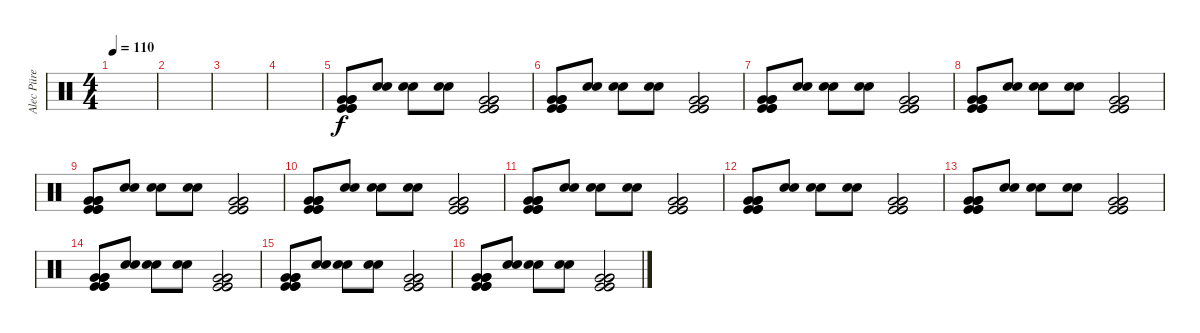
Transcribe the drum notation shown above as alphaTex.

\track ("Alec Püre" "Alec Püre") {instrument percussion}
\staff {score}
\articulation defaults
\ts (4 4)
\tempo 110
\clef neutral
\ks c
|
|
|
|
("Very Low Tom (hit)" "Very Low Tom (hit)" "Very Low Tom (hit)" "Kick (hit)" "Kick (hit)" "Kick (hit)").8 ("Electric Snare (hit)" "Electric Snare (hit)").8 ("Electric Snare (hit)" "Electric Snare (hit)").8 ("Electric Snare (hit)" "Electric Snare (hit)").8 ("Very Low Tom (hit)" "Very Low Tom (hit)" "Very Low Tom (hit)" "Kick (hit)" "Kick (hit)" "Kick (hit)").2 |
("Very Low Tom (hit)" "Very Low Tom (hit)" "Very Low Tom (hit)" "Kick (hit)" "Kick (hit)" "Kick (hit)").8 ("Electric Snare (hit)" "Electric Snare (hit)").8 ("Electric Snare (hit)" "Electric Snare (hit)").8 ("Electric Snare (hit)" "Electric Snare (hit)").8 ("Very Low Tom (hit)" "Very Low Tom (hit)" "Very Low Tom (hit)" "Kick (hit)" "Kick (hit)" "Kick (hit)").2 |
("Very Low Tom (hit)" "Very Low Tom (hit)" "Very Low Tom (hit)" "Kick (hit)" "Kick (hit)" "Kick (hit)").8 ("Electric Snare (hit)" "Electric Snare (hit)").8 ("Electric Snare (hit)" "Electric Snare (hit)").8 ("Electric Snare (hit)" "Electric Snare (hit)").8 ("Very Low Tom (hit)" "Very Low Tom (hit)" "Very Low Tom (hit)" "Kick (hit)" "Kick (hit)" "Kick (hit)").2 |
("Very Low Tom (hit)" "Very Low Tom (hit)" "Very Low Tom (hit)" "Kick (hit)" "Kick (hit)" "Kick (hit)").8 ("Electric Snare (hit)" "Electric Snare (hit)").8 ("Electric Snare (hit)" "Electric Snare (hit)").8 ("Electric Snare (hit)" "Electric Snare (hit)").8 ("Very Low Tom (hit)" "Very Low Tom (hit)" "Very Low Tom (hit)" "Kick (hit)" "Kick (hit)" "Kick (hit)").2 |
("Very Low Tom (hit)" "Very Low Tom (hit)" "Very Low Tom (hit)" "Kick (hit)" "Kick (hit)" "Kick (hit)").8 ("Electric Snare (hit)" "Electric Snare (hit)").8 ("Electric Snare (hit)" "Electric Snare (hit)").8 ("Electric Snare (hit)" "Electric Snare (hit)").8 ("Very Low Tom (hit)" "Very Low Tom (hit)" "Very Low Tom (hit)" "Kick (hit)" "Kick (hit)" "Kick (hit)").2 |
("Very Low Tom (hit)" "Very Low Tom (hit)" "Very Low Tom (hit)" "Kick (hit)" "Kick (hit)" "Kick (hit)").8 ("Electric Snare (hit)" "Electric Snare (hit)").8 ("Electric Snare (hit)" "Electric Snare (hit)").8 ("Electric Snare (hit)" "Electric Snare (hit)").8 ("Very Low Tom (hit)" "Very Low Tom (hit)" "Very Low Tom (hit)" "Kick (hit)" "Kick (hit)" "Kick (hit)").2 |
("Very Low Tom (hit)" "Very Low Tom (hit)" "Very Low Tom (hit)" "Kick (hit)" "Kick (hit)" "Kick (hit)").8 ("Electric Snare (hit)" "Electric Snare (hit)").8 ("Electric Snare (hit)" "Electric Snare (hit)").8 ("Electric Snare (hit)" "Electric Snare (hit)").8 ("Very Low Tom (hit)" "Very Low Tom (hit)" "Very Low Tom (hit)" "Kick (hit)" "Kick (hit)" "Kick (hit)").2 |
("Very Low Tom (hit)" "Very Low Tom (hit)" "Very Low Tom (hit)" "Kick (hit)" "Kick (hit)" "Kick (hit)").8 ("Electric Snare (hit)" "Electric Snare (hit)").8 ("Electric Snare (hit)" "Electric Snare (hit)").8 ("Electric Snare (hit)" "Electric Snare (hit)").8 ("Very Low Tom (hit)" "Very Low Tom (hit)" "Very Low Tom (hit)" "Kick (hit)" "Kick (hit)" "Kick (hit)").2 |
("Very Low Tom (hit)" "Very Low Tom (hit)" "Very Low Tom (hit)" "Kick (hit)" "Kick (hit)" "Kick (hit)").8 ("Electric Snare (hit)" "Electric Snare (hit)").8 ("Electric Snare (hit)" "Electric Snare (hit)").8 ("Electric Snare (hit)" "Electric Snare (hit)").8 ("Very Low Tom (hit)" "Very Low Tom (hit)" "Very Low Tom (hit)" "Kick (hit)" "Kick (hit)" "Kick (hit)").2 |
("Very Low Tom (hit)" "Very Low Tom (hit)" "Very Low Tom (hit)" "Kick (hit)" "Kick (hit)" "Kick (hit)").8 ("Electric Snare (hit)" "Electric Snare (hit)").8 ("Electric Snare (hit)" "Electric Snare (hit)").8 ("Electric Snare (hit)" "Electric Snare (hit)").8 ("Very Low Tom (hit)" "Very Low Tom (hit)" "Very Low Tom (hit)" "Kick (hit)" "Kick (hit)" "Kick (hit)").2 |
("Very Low Tom (hit)" "Very Low Tom (hit)" "Very Low Tom (hit)" "Kick (hit)" "Kick (hit)" "Kick (hit)").8 ("Electric Snare (hit)" "Electric Snare (hit)").8 ("Electric Snare (hit)" "Electric Snare (hit)").8 ("Electric Snare (hit)" "Electric Snare (hit)").8 ("Very Low Tom (hit)" "Very Low Tom (hit)" "Very Low Tom (hit)" "Kick (hit)" "Kick (hit)" "Kick (hit)").2 |
("Very Low Tom (hit)" "Very Low Tom (hit)" "Very Low Tom (hit)" "Kick (hit)" "Kick (hit)" "Kick (hit)").8 ("Electric Snare (hit)" "Electric Snare (hit)").8 ("Electric Snare (hit)" "Electric Snare (hit)").8 ("Electric Snare (hit)" "Electric Snare (hit)").8 ("Very Low Tom (hit)" "Very Low Tom (hit)" "Very Low Tom (hit)" "Kick (hit)" "Kick (hit)" "Kick (hit)").2
